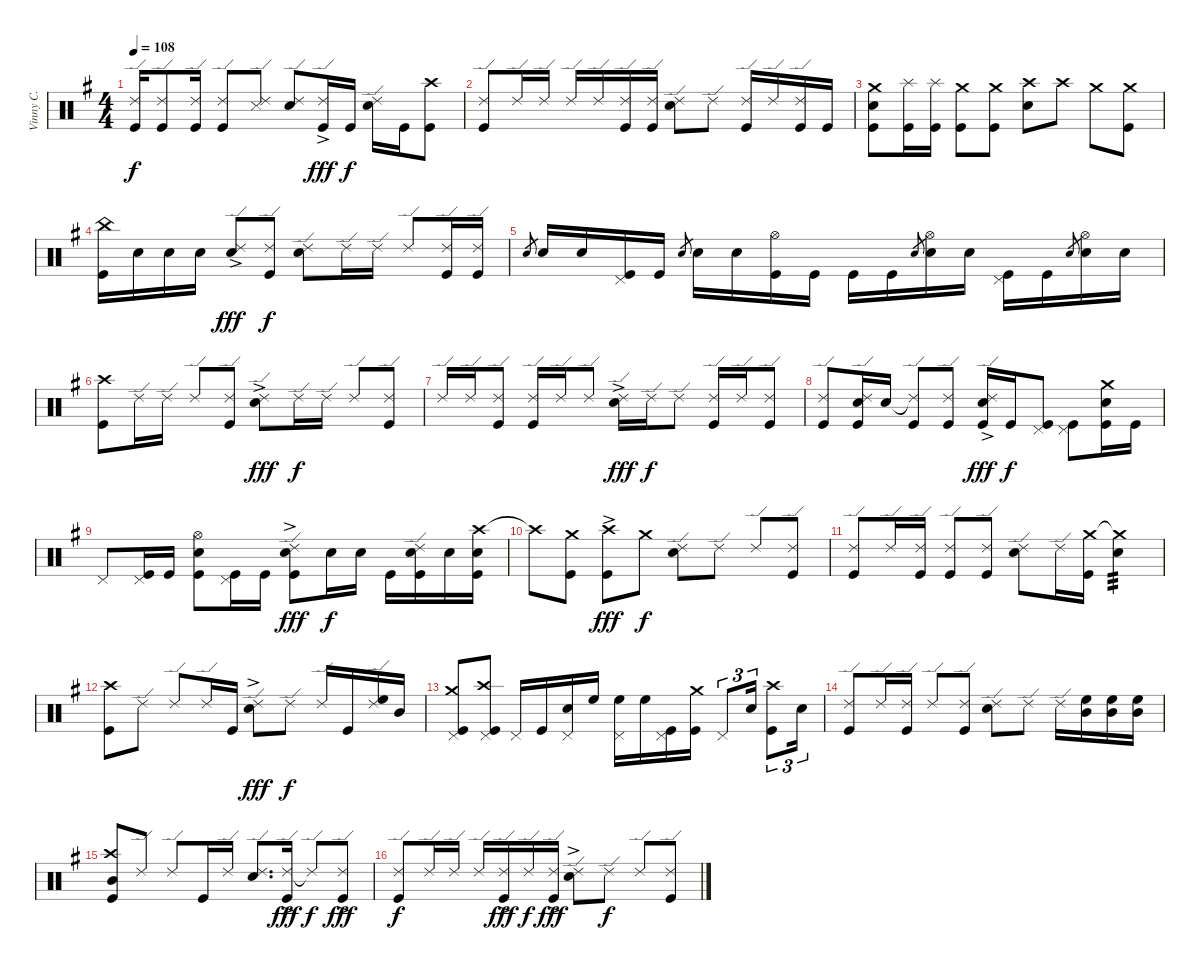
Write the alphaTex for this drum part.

\track ("Vinny C." "Vinny C.") {instrument percussion}
\staff {score}
\articulation defaults
\ts (4 4)
\tempo 108
\clef neutral
\ks g
("Ride (edge) 2" "Kick (hit)").16{dy f} ("Ride (edge) 2" "Kick (hit)").8 ("Ride (edge) 2" "Kick (hit)").16 ("Ride (edge) 2" "Kick (hit)").8 ("Ride (edge) 2" "Snare (side stick) 3").8 ("Ride (edge) 2" "Electric Snare (hit)").8 ("Ride (edge) 2"{ac} "Kick (hit)").16{dy fff} "Kick (hit)".16{dy f} ("Ride (edge) 2" "Electric Snare (hit)").16 "Kick (hit)".16 ("Crash high (hit)" "Kick (hit)").8 |
("Ride (edge) 2" "Kick (hit)").8 "Ride (edge) 2".16 "Ride (edge) 2".16 "Ride (edge) 2".16 "Ride (edge) 2".16 ("Ride (edge) 2" "Kick (hit)").16 ("Ride (edge) 2" "Kick (hit)").16 ("Ride (edge) 2" "Electric Snare (hit)").8 "Ride (edge) 2".8 ("Ride (edge) 2" "Kick (hit)").16 "Ride (edge) 2".16 ("Ride (edge) 2" "Kick (hit)").16 "Kick (hit)".16 |
("Crash medium (hit)" "Electric Snare (hit)" "Kick (hit)").8 ("Splash (hit)" "Kick (hit)").16 ("Splash (hit)" "Kick (hit)").16 ("Crash medium (hit)" "Kick (hit)").8 ("Crash medium (hit)" "Kick (hit)").8 ("Crash high (hit)" "Electric Snare (hit)").8 "Crash high (hit)".8 "Crash medium (hit)".8 ("Crash medium (hit)" "Kick (hit)").8 |
("China (hit)" "Kick (hit)").16 "Electric Snare (hit)".16 "Electric Snare (hit)".16 "Electric Snare (hit)".16 ("Ride (edge) 2"{ac} "Electric Snare (hit)").8{dy fff} ("Ride (edge) 2" "Kick (hit)").8{dy f} ("Ride (edge) 2" "Electric Snare (hit)").8 "Ride (edge) 2".16 "Ride (edge) 2".16 "Ride (edge) 2".8 ("Ride (edge) 2" "Kick (hit)").16 ("Ride (edge) 2" "Kick (hit)").16 |
"Electric Snare (hit)".8{gr} "Electric Snare (hit)".16 "Electric Snare (hit)".16 ("Pedal Hi-Hat (hit)" "Kick (hit)").16 "Kick (hit)".16 "Electric Snare (hit)".8{gr} "Electric Snare (hit)".16 "Electric Snare (hit)".16 ("Hi-Hat (open)" "Kick (hit)").16 "Kick (hit)".16 "Kick (hit)".16 "Kick (hit)".16 "Electric Snare (hit)".8{gr} ("Hi-Hat (open)" "Electric Snare (hit)").16 "Electric Snare (hit)".16 ("Pedal Hi-Hat (hit)" "Kick (hit)").16 "Kick (hit)".16 "Electric Snare (hit)".8{gr} ("Hi-Hat (open)" "Electric Snare (hit)").16 "Electric Snare (hit)".16 |
("Crash high (hit)" "Kick (hit)").8 "Ride (edge) 2".16 "Ride (edge) 2".16 "Ride (edge) 2".8 ("Ride (edge) 2" "Kick (hit)").8 ("Ride (edge) 2"{ac} "Electric Snare (hit)").8{dy fff} "Ride (edge) 2".16{dy f} "Ride (edge) 2".16 "Ride (edge) 2".8 ("Ride (edge) 2" "Kick (hit)").8 |
"Ride (edge) 2".16 "Ride (edge) 2".16 ("Ride (edge) 2" "Kick (hit)").8 ("Ride (edge) 2" "Kick (hit)").16 "Ride (edge) 2".16 "Ride (edge) 2".8 ("Ride (edge) 2"{ac} "Electric Snare (hit)").16{dy fff} "Ride (edge) 2".16{dy f} "Ride (edge) 2".8 ("Ride (edge) 2" "Kick (hit)").16 "Ride (edge) 2".16 ("Ride (edge) 2" "Kick (hit)").8 |
("Ride (edge) 2" "Kick (hit)").8 ("Ride (edge) 2" "Electric Snare (hit)" "Kick (hit)").16 "Electric Snare (hit)".16 ("Ride (edge) 2"{t} "Kick (hit)").8 ("Ride (edge) 2" "Kick (hit)").8 ("Ride (edge) 2"{ac} "Electric Snare (hit)" "Kick (hit)").16{dy fff} "Kick (hit)".16{dy f} ("Pedal Hi-Hat (hit)" "Kick (hit)").8 ("Pedal Hi-Hat (hit)" "Kick (hit)").8 ("Crash medium (hit)" "Electric Snare (hit)" "Kick (hit)").16 "Kick (hit)".16 |
"Pedal Hi-Hat (hit)".8 ("Pedal Hi-Hat (hit)" "Kick (hit)").16 "Kick (hit)".16 ("Hi-Hat (open)" "Electric Snare (hit)" "Kick (hit)").8 ("Pedal Hi-Hat (hit)" "Kick (hit)").16 "Kick (hit)".16 ("Ride (edge) 2" "Electric Snare (hit)" "Kick (hit)"{ac}).8{dy fff} "Electric Snare (hit)".16{dy f} "Electric Snare (hit)".16 "Kick (hit)".16 ("Ride (edge) 2" "Electric Snare (hit)" "Kick (hit)").16 "Electric Snare (hit)".16 ("Crash high (hit)" "Electric Snare (hit)" "Kick (hit)").16 |
"Crash high (hit)"{t}.8 ("Crash medium (hit)" "Kick (hit)").8 ("Crash high (hit)"{ac} "Kick (hit)").8{dy fff} "Crash medium (hit)".8{dy f} ("Ride (edge) 2" "Electric Snare (hit)").8 "Ride (edge) 2".8 "Ride (edge) 2".8 ("Ride (edge) 2" "Kick (hit)").8 |
("Ride (edge) 2" "Kick (hit)").8 "Ride (edge) 2".16 ("Ride (edge) 2" "Kick (hit)").16 ("Ride (edge) 2" "Kick (hit)").8 ("Ride (edge) 2" "Kick (hit)").8 ("Ride (edge) 2" "Electric Snare (hit)").8 "Ride (edge) 2".16 ("Crash medium (hit)" "Kick (hit)").16 ("Crash medium (hit)"{t} "Electric Snare (hit)").4{tp 3} |
("Crash high (hit)" "Kick (hit)").8 "Ride (edge) 2".8 "Ride (edge) 2".8 "Ride (edge) 2".16 "Kick (hit)".16 ("Ride (edge) 2" "Electric Snare (hit)"{ac}).8{dy fff} "Ride (edge) 2".8{dy f} "Ride (edge) 2".16 "Kick (hit)".16 ("Ride (edge) 2" "High Floor Tom (hit)").16 "Mid Tom (hit)".16 |
("Crash medium (hit)" "Pedal Hi-Hat (hit)" "Kick (hit)").8 ("Crash high (hit)" "Pedal Hi-Hat (hit)" "Kick (hit)").8 "Pedal Hi-Hat (hit)".16 "Kick (hit)".16 ("Pedal Hi-Hat (hit)" "Electric Snare (hit)").16 "High Floor Tom (hit)".16 ("Pedal Hi-Hat (hit)" "High Floor Tom (hit)").16 "High Floor Tom (hit)".16 ("Pedal Hi-Hat (hit)" "Kick (hit)").16 ("Crash medium (hit)" "Kick (hit)").16 "Pedal Hi-Hat (hit)".8{tu (3 2)} "Electric Snare (hit)".16{tu (3 2)} ("Crash high (hit)" "Kick (hit)").8{tu (3 2)} "Electric Snare (hit)".16{tu (3 2)} |
("Ride (edge) 2" "Kick (hit)").8 "Ride (edge) 2".16 ("Ride (edge) 2" "Kick (hit)").16 "Ride (edge) 2".8 ("Ride (edge) 2" "Kick (hit)").8 ("Ride (edge) 2" "Electric Snare (hit)").8 "Ride (edge) 2".8 "Ride (edge) 2".16 ("High Floor Tom (hit)" "Mid Tom (hit)").16 ("High Floor Tom (hit)" "Mid Tom (hit)").16 ("High Floor Tom (hit)" "Mid Tom (hit)").16 |
("Crash high (hit)" "Mid Tom (hit)" "Kick (hit)").8 "Ride (edge) 2".8 "Ride (edge) 2".8 "Kick (hit)".16 "Ride (edge) 2".16 ("Ride (edge) 2" "Electric Snare (hit)").8{d} ("Ride (edge) 2" "Kick (hit)"{ac}).16{dy fff} "Ride (edge) 2"{t}.8{dy f} ("Ride (edge) 2" "Kick (hit)"{ac}).8{dy fff} |
("Ride (edge) 2" "Kick (hit)").8{dy f} "Ride (edge) 2".16 "Ride (edge) 2".16 "Ride (edge) 2".16 ("Ride (edge) 2" "Kick (hit)"{ac}).16{dy fff} "Ride (edge) 2".16{dy f} ("Ride (edge) 2" "Kick (hit)"{ac}).16{dy fff} ("Ride (edge) 2" "Electric Snare (hit)"{ac}).8 "Ride (edge) 2".8{dy f} "Ride (edge) 2".8 ("Ride (edge) 2" "Kick (hit)").8
